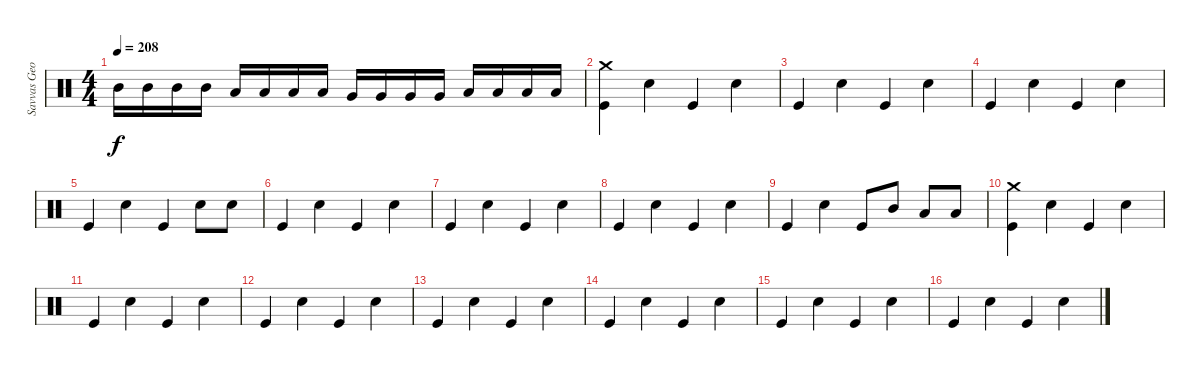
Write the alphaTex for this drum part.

\track ("Savvas Georgiadis" "Savvas Geo") {instrument percussion}
\staff {score}
\articulation defaults
\ts (4 4)
\tempo 208
\clef neutral
\ks c "Mid Tom (hit)".16{dy f} "Mid Tom (hit)".16 "Mid Tom (hit)".16 "Mid Tom (hit)".16 "Low Tom (hit)".16 "Low Tom (hit)".16 "Low Tom (hit)".16 "Low Tom (hit)".16 "Very Low Tom (hit)".16 "Very Low Tom (hit)".16 "Very Low Tom (hit)".16 "Very Low Tom (hit)".16 "Low Floor Tom (hit)".16 "Low Floor Tom (hit)".16 "Low Floor Tom (hit)".16 "Low Floor Tom (hit)".16
|
("Crash medium (hit)" "Kick (hit)").4 "Snare (hit) 2".4 "Kick (hit)".4 "Snare (hit) 2".4 |
"Kick (hit)".4 "Snare (hit) 2".4 "Kick (hit)".4 "Snare (hit) 2".4 |
"Kick (hit)".4 "Snare (hit) 2".4 "Kick (hit)".4 "Snare (hit) 2".4 |
"Kick (hit)".4 "Snare (hit) 2".4 "Kick (hit)".4 "Snare (hit) 2".8 "Snare (hit) 2".8 |
"Kick (hit)".4 "Snare (hit) 2".4 "Kick (hit)".4 "Snare (hit) 2".4 |
"Kick (hit)".4 "Snare (hit) 2".4 "Kick (hit)".4 "Snare (hit) 2".4 |
"Kick (hit)".4 "Snare (hit) 2".4 "Kick (hit)".4 "Snare (hit) 2".4 |
"Kick (hit)".4 "Snare (hit) 2".4 "Kick (hit)".8 "Mid Tom (hit)".8 "Low Tom (hit)".8 "Low Tom (hit)".8 |
("Crash medium (hit)" "Kick (hit)").4 "Snare (hit) 2".4 "Kick (hit)".4 "Snare (hit) 2".4 |
"Kick (hit)".4 "Snare (hit) 2".4 "Kick (hit)".4 "Snare (hit) 2".4 |
"Kick (hit)".4 "Snare (hit) 2".4 "Kick (hit)".4 "Snare (hit) 2".4 |
"Kick (hit)".4 "Snare (hit) 2".4 "Kick (hit)".4 "Snare (hit) 2".4 |
"Kick (hit)".4 "Snare (hit) 2".4 "Kick (hit)".4 "Snare (hit) 2".4 |
"Kick (hit)".4 "Snare (hit) 2".4 "Kick (hit)".4 "Snare (hit) 2".4 |
"Kick (hit)".4 "Snare (hit) 2".4 "Kick (hit)".4 "Snare (hit) 2".4
